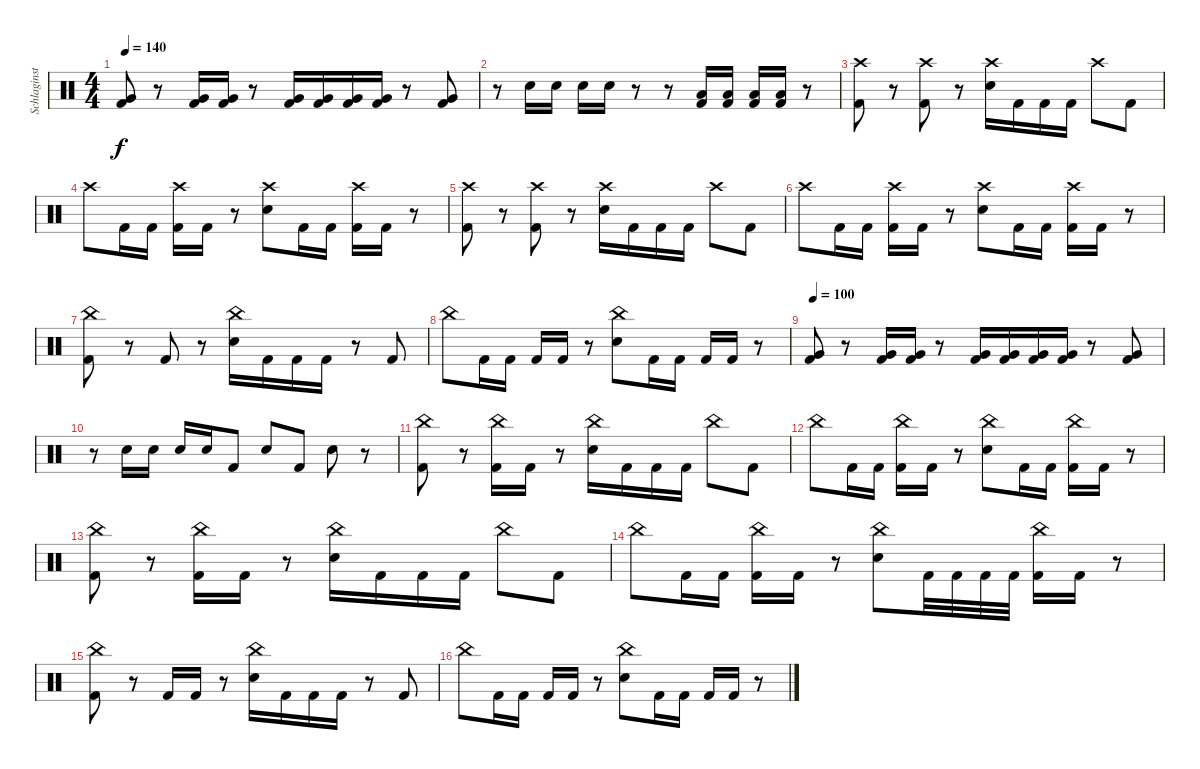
\track ("Schlaginstrumente - Auswahl" "Schlaginst") {instrument percussion}
\staff {score}
\articulation defaults
\ts (4 4)
\tempo 140
\clef neutral
\ks c
("Very Low Tom (hit)" "Kick (hit) 2").8{dy f} r.8 ("Very Low Tom (hit)" "Kick (hit) 2").16 ("Very Low Tom (hit)" "Kick (hit) 2").16 r.8 ("Very Low Tom (hit)" "Kick (hit) 2").16 ("Very Low Tom (hit)" "Kick (hit) 2").16 ("Very Low Tom (hit)" "Kick (hit) 2").16 ("Very Low Tom (hit)" "Kick (hit) 2").16 r.8 ("Very Low Tom (hit)" "Kick (hit) 2").8 |
r.8 "Electric Snare (hit)".16 "Electric Snare (hit)".16 "Electric Snare (hit)".16 "Electric Snare (hit)".16 r.8 r.8 ("Low Tom (hit)" "Kick (hit) 2").16 ("Low Tom (hit)" "Kick (hit) 2").16 ("Low Tom (hit)" "Kick (hit) 2").16 ("Low Tom (hit)" "Kick (hit) 2").16 r.8 |
("Crash high (hit)" "Kick (hit) 2").8 r.8 ("Crash high (hit)" "Kick (hit) 2").8 r.8 ("Crash high (hit)" "Electric Snare (hit)").16 "Kick (hit) 2".16 "Kick (hit) 2".16 "Kick (hit) 2".16 "Crash high (hit)".8 "Kick (hit) 2".8 |
"Crash high (hit)".8 "Kick (hit) 2".16 "Kick (hit) 2".16 ("Crash high (hit)" "Kick (hit) 2").16 "Kick (hit) 2".16 r.8 ("Crash high (hit)" "Electric Snare (hit)").8 "Kick (hit) 2".16 "Kick (hit) 2".16 ("Crash high (hit)" "Kick (hit) 2").16 "Kick (hit) 2".16 r.8 |
("Crash high (hit)" "Kick (hit) 2").8 r.8 ("Crash high (hit)" "Kick (hit) 2").8 r.8 ("Crash high (hit)" "Electric Snare (hit)").16 "Kick (hit) 2".16 "Kick (hit) 2".16 "Kick (hit) 2".16 "Crash high (hit)".8 "Kick (hit) 2".8 |
"Crash high (hit)".8 "Kick (hit) 2".16 "Kick (hit) 2".16 ("Crash high (hit)" "Kick (hit) 2").16 "Kick (hit) 2".16 r.8 ("Crash high (hit)" "Electric Snare (hit)").8 "Kick (hit) 2".16 "Kick (hit) 2".16 ("Crash high (hit)" "Kick (hit) 2").16 "Kick (hit) 2".16 r.8 |
("China (hit)" "Kick (hit) 2").8 r.8 "Kick (hit) 2".8 r.8 ("China (hit)" "Electric Snare (hit)").16 "Kick (hit) 2".16 "Kick (hit) 2".16 "Kick (hit) 2".16 r.8 "Kick (hit) 2".8 |
"China (hit)".8 "Kick (hit) 2".16 "Kick (hit) 2".16 "Kick (hit) 2".16 "Kick (hit) 2".16 r.8 ("China (hit)" "Electric Snare (hit)").8 "Kick (hit) 2".16 "Kick (hit) 2".16 "Kick (hit) 2".16 "Kick (hit) 2".16 r.8 |
\tempo 100
("Very Low Tom (hit)" "Kick (hit) 2").8 r.8 ("Very Low Tom (hit)" "Kick (hit) 2").16 ("Very Low Tom (hit)" "Kick (hit) 2").16 r.8 ("Very Low Tom (hit)" "Kick (hit) 2").16 ("Very Low Tom (hit)" "Kick (hit) 2").16 ("Very Low Tom (hit)" "Kick (hit) 2").16 ("Very Low Tom (hit)" "Kick (hit) 2").16 r.8 ("Very Low Tom (hit)" "Kick (hit) 2").8 |
r.8 "Snare (hit) 2".16 "Snare (hit) 2".16 "Snare (hit) 2".16 "Snare (hit) 2".16 "Kick (hit) 2".8 "Snare (hit) 2".8 "Kick (hit) 2".8 "Snare (hit) 2".8 r.8 |
("China (hit)" "Kick (hit) 2").8 r.8 ("China (hit)" "Kick (hit) 2").16 "Kick (hit) 2".16 r.8 ("China (hit)" "Electric Snare (hit)").16 "Kick (hit) 2".16 "Kick (hit) 2".16 "Kick (hit) 2".16 "China (hit)".8 "Kick (hit) 2".8 |
"China (hit)".8 "Kick (hit) 2".16 "Kick (hit) 2".16 ("China (hit)" "Kick (hit) 2").16 "Kick (hit) 2".16 r.8 ("China (hit)" "Electric Snare (hit)").8 "Kick (hit) 2".16 "Kick (hit) 2".16 ("China (hit)" "Kick (hit) 2").16 "Kick (hit) 2".16 r.8 |
("China (hit)" "Kick (hit) 2").8 r.8 ("China (hit)" "Kick (hit) 2").16 "Kick (hit) 2".16 r.8 ("China (hit)" "Electric Snare (hit)").16 "Kick (hit) 2".16 "Kick (hit) 2".16 "Kick (hit) 2".16 "China (hit)".8 "Kick (hit) 2".8 |
"China (hit)".8 "Kick (hit) 2".16 "Kick (hit) 2".16 ("China (hit)" "Kick (hit) 2").16 "Kick (hit) 2".16 r.8 ("China (hit)" "Electric Snare (hit)").8 "Kick (hit) 2".32 "Kick (hit) 2".32 "Kick (hit) 2".32 "Kick (hit) 2".32 ("China (hit)" "Kick (hit) 2").16 "Kick (hit) 2".16 r.8 |
("China (hit)" "Kick (hit) 2").8 r.8 "Kick (hit) 2".16 "Kick (hit) 2".16 r.8 ("China (hit)" "Electric Snare (hit)").16 "Kick (hit) 2".16 "Kick (hit) 2".16 "Kick (hit) 2".16 r.8 "Kick (hit) 2".8 |
"China (hit)".8 "Kick (hit) 2".16 "Kick (hit) 2".16 "Kick (hit) 2".16 "Kick (hit) 2".16 r.8 ("China (hit)" "Electric Snare (hit)").8 "Kick (hit) 2".16 "Kick (hit) 2".16 "Kick (hit) 2".16 "Kick (hit) 2".16 r.8
